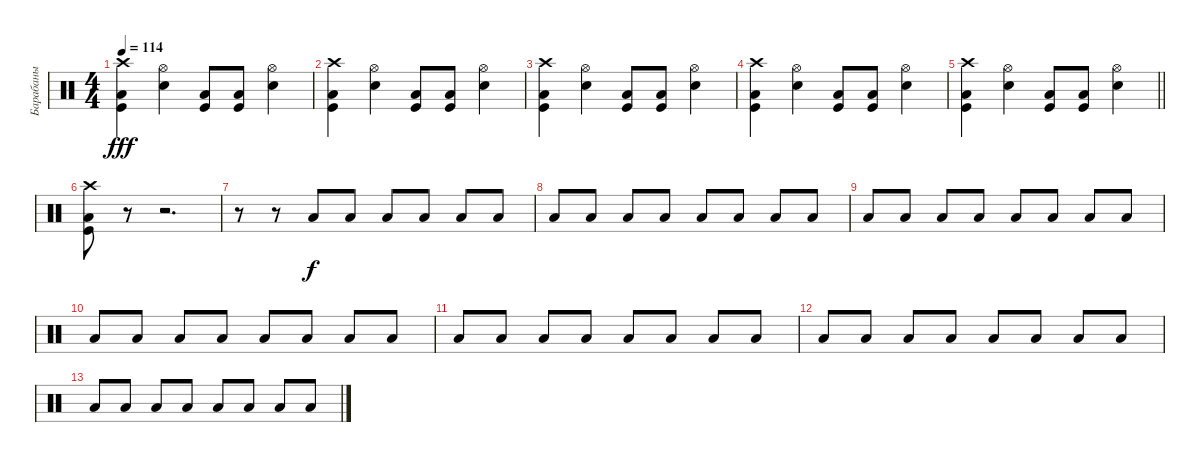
\track ("Барабаны" "Барабаны") {instrument percussion}
\staff {score}
\articulation defaults
\ts (4 4)
\tempo 114
\clef neutral
\ks c
("Low Floor Tom (hit)" "Kick (hit)" "Crash high (hit)").4{dy fff} ("Electric Snare (hit)" "Hi-Hat (open)").4 ("Low Floor Tom (hit)" "Kick (hit)").8 ("Low Floor Tom (hit)" "Kick (hit)").8 ("Electric Snare (hit)" "Hi-Hat (open)").4 |
("Low Floor Tom (hit)" "Kick (hit)" "Crash high (hit)").4 ("Electric Snare (hit)" "Hi-Hat (open)").4 ("Low Floor Tom (hit)" "Kick (hit)").8 ("Low Floor Tom (hit)" "Kick (hit)").8 ("Electric Snare (hit)" "Hi-Hat (open)").4 |
("Low Floor Tom (hit)" "Kick (hit)" "Crash high (hit)").4 ("Electric Snare (hit)" "Hi-Hat (open)").4 ("Low Floor Tom (hit)" "Kick (hit)").8 ("Low Floor Tom (hit)" "Kick (hit)").8 ("Electric Snare (hit)" "Hi-Hat (open)").4 |
("Low Floor Tom (hit)" "Kick (hit)" "Crash high (hit)").4 ("Electric Snare (hit)" "Hi-Hat (open)").4 ("Low Floor Tom (hit)" "Kick (hit)").8 ("Low Floor Tom (hit)" "Kick (hit)").8 ("Electric Snare (hit)" "Hi-Hat (open)").4 |
\barLineRight lightlight
("Low Floor Tom (hit)" "Kick (hit)" "Crash high (hit)").4 ("Electric Snare (hit)" "Hi-Hat (open)").4 ("Low Floor Tom (hit)" "Kick (hit)").8 ("Low Floor Tom (hit)" "Kick (hit)").8 ("Electric Snare (hit)" "Hi-Hat (open)").4 |
("Low Floor Tom (hit)" "Kick (hit)" "Crash high (hit)").8 r.8 r.2{d} |
r.8 r.8 "Low Floor Tom (hit)".8{dy f} "Low Floor Tom (hit)".8 "Low Floor Tom (hit)".8 "Low Floor Tom (hit)".8 "Low Floor Tom (hit)".8 "Low Floor Tom (hit)".8 |
"Low Floor Tom (hit)".8 "Low Floor Tom (hit)".8 "Low Floor Tom (hit)".8 "Low Floor Tom (hit)".8 "Low Floor Tom (hit)".8 "Low Floor Tom (hit)".8 "Low Floor Tom (hit)".8 "Low Floor Tom (hit)".8 |
"Low Floor Tom (hit)".8 "Low Floor Tom (hit)".8 "Low Floor Tom (hit)".8 "Low Floor Tom (hit)".8 "Low Floor Tom (hit)".8 "Low Floor Tom (hit)".8 "Low Floor Tom (hit)".8 "Low Floor Tom (hit)".8 |
"Low Floor Tom (hit)".8 "Low Floor Tom (hit)".8 "Low Floor Tom (hit)".8 "Low Floor Tom (hit)".8 "Low Floor Tom (hit)".8 "Low Floor Tom (hit)".8 "Low Floor Tom (hit)".8 "Low Floor Tom (hit)".8 |
"Low Floor Tom (hit)".8 "Low Floor Tom (hit)".8 "Low Floor Tom (hit)".8 "Low Floor Tom (hit)".8 "Low Floor Tom (hit)".8 "Low Floor Tom (hit)".8 "Low Floor Tom (hit)".8 "Low Floor Tom (hit)".8 |
"Low Floor Tom (hit)".8 "Low Floor Tom (hit)".8 "Low Floor Tom (hit)".8 "Low Floor Tom (hit)".8 "Low Floor Tom (hit)".8 "Low Floor Tom (hit)".8 "Low Floor Tom (hit)".8 "Low Floor Tom (hit)".8 |
"Low Floor Tom (hit)".8 "Low Floor Tom (hit)".8 "Low Floor Tom (hit)".8 "Low Floor Tom (hit)".8 "Low Floor Tom (hit)".8 "Low Floor Tom (hit)".8 "Low Floor Tom (hit)".8 "Low Floor Tom (hit)".8
